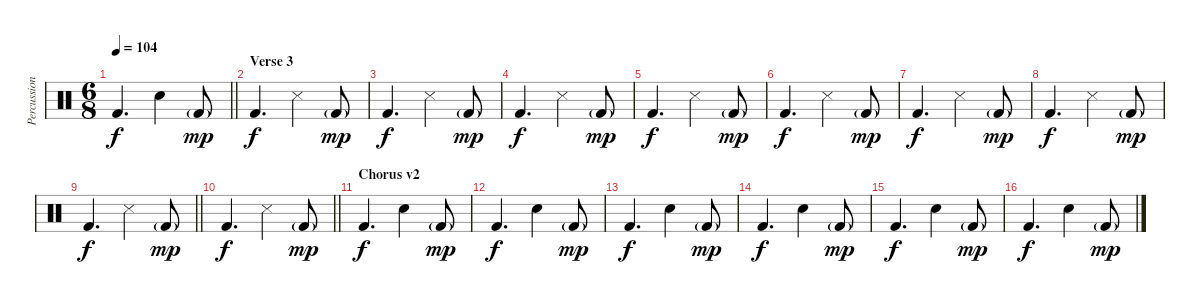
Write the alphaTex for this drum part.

\track ("Percussion" "Percussion") {instrument percussion}
\staff {score}
\articulation defaults
\ts (6 8)
\tempo 104
\clef neutral
\barLineRight lightlight
\ks c "Kick (hit) 2".4{d dy f} "Snare (hit) 2".4 "Kick (hit) 2"{g}.8{dy mp}
|
\section ("" "Verse 3")
"Kick (hit) 2".4{d dy f} "Snare (side stick) 3".4 "Kick (hit) 2"{g}.8{dy mp} |
"Kick (hit) 2".4{d dy f} "Snare (side stick) 3".4 "Kick (hit) 2"{g}.8{dy mp} |
"Kick (hit) 2".4{d dy f} "Snare (side stick) 3".4 "Kick (hit) 2"{g}.8{dy mp} |
"Kick (hit) 2".4{d dy f} "Snare (side stick) 3".4 "Kick (hit) 2"{g}.8{dy mp} |
"Kick (hit) 2".4{d dy f} "Snare (side stick) 3".4 "Kick (hit) 2"{g}.8{dy mp} |
"Kick (hit) 2".4{d dy f} "Snare (side stick) 3".4 "Kick (hit) 2"{g}.8{dy mp} |
"Kick (hit) 2".4{d dy f} "Snare (side stick) 3".4 "Kick (hit) 2"{g}.8{dy mp} |
\barLineRight lightlight "Kick (hit) 2".4{d dy f} "Snare (side stick) 3".4 "Kick (hit) 2"{g}.8{dy mp}
|
\section ("" "")
\barLineRight lightlight "Kick (hit) 2".4{d dy f} "Snare (side stick) 3".4 "Kick (hit) 2"{g}.8{dy mp}
|
\section ("" "Chorus v2")
"Kick (hit) 2".4{d dy f} "Snare (hit) 2".4 "Kick (hit) 2"{g}.8{dy mp} |
"Kick (hit) 2".4{d dy f} "Snare (hit) 2".4 "Kick (hit) 2"{g}.8{dy mp} |
"Kick (hit) 2".4{d dy f} "Snare (hit) 2".4 "Kick (hit) 2"{g}.8{dy mp} |
"Kick (hit) 2".4{d dy f} "Snare (hit) 2".4 "Kick (hit) 2"{g}.8{dy mp} |
"Kick (hit) 2".4{d dy f} "Snare (hit) 2".4 "Kick (hit) 2"{g}.8{dy mp} |
"Kick (hit) 2".4{d dy f} "Snare (hit) 2".4 "Kick (hit) 2"{g}.8{dy mp}
